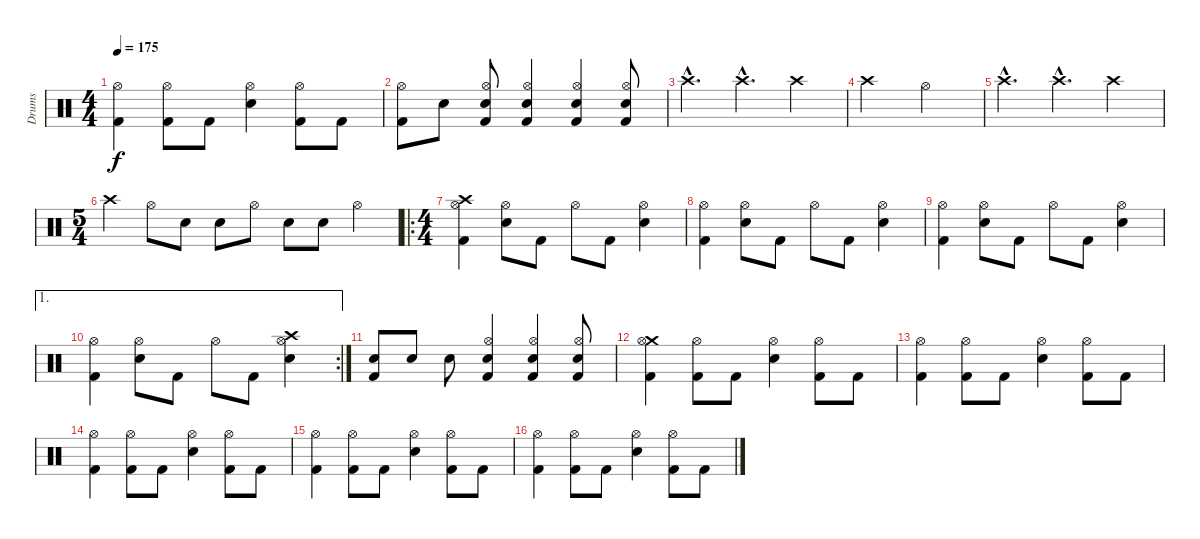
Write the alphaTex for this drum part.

\track ("Drums" "Drums") {instrument percussion}
\staff {score}
\articulation defaults
\ts (4 4)
\tempo 175
\clef neutral
\ks c
("Kick (hit) 2" "Hi-Hat (open)").4{dy f} ("Kick (hit) 2" "Hi-Hat (open)").8 "Kick (hit) 2".8 ("Hi-Hat (open)" "Snare (hit) 2").4 ("Kick (hit) 2" "Hi-Hat (open)").8 "Kick (hit) 2".8 |
("Kick (hit) 2" "Hi-Hat (open)").8 "Snare (hit) 2".8 ("Kick (hit) 2" "Hi-Hat (open)" "Snare (hit) 2").8 ("Kick (hit) 2" "Hi-Hat (open)" "Snare (hit) 2").4 ("Kick (hit) 2" "Hi-Hat (open)" "Snare (hit) 2").4 ("Kick (hit) 2" "Hi-Hat (open)" "Snare (hit) 2").8 |
"Crash high (hit)"{hac}.4{d} "Crash high (hit)"{hac}.4{d} "Crash high (hit)".4 |
"Crash high (hit)".2 "Hi-Hat (open)".2 |
"Crash high (hit)"{hac}.4{d} "Crash high (hit)"{hac}.4{d} "Crash high (hit)".4 |
\ts (5 4)
"Crash high (hit)".4 "Hi-Hat (open)".8 "Snare (hit) 2".8 "Snare (hit) 2".8 "Hi-Hat (open)".8 "Snare (hit) 2".8 "Snare (hit) 2".8 "Hi-Hat (open)".4 |
\ro
\ts (4 4)
("Kick (hit) 2" "Crash high (hit)" "Hi-Hat (open)").4 ("Hi-Hat (open)" "Snare (hit) 2").8 "Kick (hit) 2".8 "Hi-Hat (open)".8 "Kick (hit) 2".8 ("Hi-Hat (open)" "Snare (hit) 2").4 |
("Kick (hit) 2" "Hi-Hat (open)").4 ("Hi-Hat (open)" "Snare (hit) 2").8 "Kick (hit) 2".8 "Hi-Hat (open)".8 "Kick (hit) 2".8 ("Hi-Hat (open)" "Snare (hit) 2").4 |
("Kick (hit) 2" "Hi-Hat (open)").4 ("Hi-Hat (open)" "Snare (hit) 2").8 "Kick (hit) 2".8 "Hi-Hat (open)".8 "Kick (hit) 2".8 ("Hi-Hat (open)" "Snare (hit) 2").4 |
\ae 1
\rc 2
("Kick (hit) 2" "Hi-Hat (open)").4 ("Hi-Hat (open)" "Snare (hit) 2").8 "Kick (hit) 2".8 "Hi-Hat (open)".8 "Kick (hit) 2".8 ("Crash high (hit)" "Hi-Hat (open)" "Snare (hit) 2").4 |
("Kick (hit) 2" "Snare (hit) 2").8 "Snare (hit) 2".8 "Snare (hit) 2".8 ("Kick (hit) 2" "Hi-Hat (open)" "Snare (hit) 2").4 ("Kick (hit) 2" "Hi-Hat (open)" "Snare (hit) 2").4 ("Kick (hit) 2" "Hi-Hat (open)" "Snare (hit) 2").8 |
("Kick (hit) 2" "Crash medium (hit)" "Hi-Hat (open)").4 ("Kick (hit) 2" "Hi-Hat (open)").8 "Kick (hit) 2".8 ("Hi-Hat (open)" "Snare (hit) 2").4 ("Kick (hit) 2" "Hi-Hat (open)").8 "Kick (hit) 2".8 |
("Kick (hit) 2" "Hi-Hat (open)").4 ("Kick (hit) 2" "Hi-Hat (open)").8 "Kick (hit) 2".8 ("Hi-Hat (open)" "Snare (hit) 2").4 ("Kick (hit) 2" "Hi-Hat (open)").8 "Kick (hit) 2".8 |
("Kick (hit) 2" "Hi-Hat (open)").4 ("Kick (hit) 2" "Hi-Hat (open)").8 "Kick (hit) 2".8 ("Hi-Hat (open)" "Snare (hit) 2").4 ("Kick (hit) 2" "Hi-Hat (open)").8 "Kick (hit) 2".8 |
("Kick (hit) 2" "Hi-Hat (open)").4 ("Kick (hit) 2" "Hi-Hat (open)").8 "Kick (hit) 2".8 ("Hi-Hat (open)" "Snare (hit) 2").4 ("Kick (hit) 2" "Hi-Hat (open)").8 "Kick (hit) 2".8 |
("Kick (hit) 2" "Hi-Hat (open)").4 ("Kick (hit) 2" "Hi-Hat (open)").8 "Kick (hit) 2".8 ("Hi-Hat (open)" "Snare (hit) 2").4 ("Kick (hit) 2" "Hi-Hat (open)").8 "Kick (hit) 2".8
